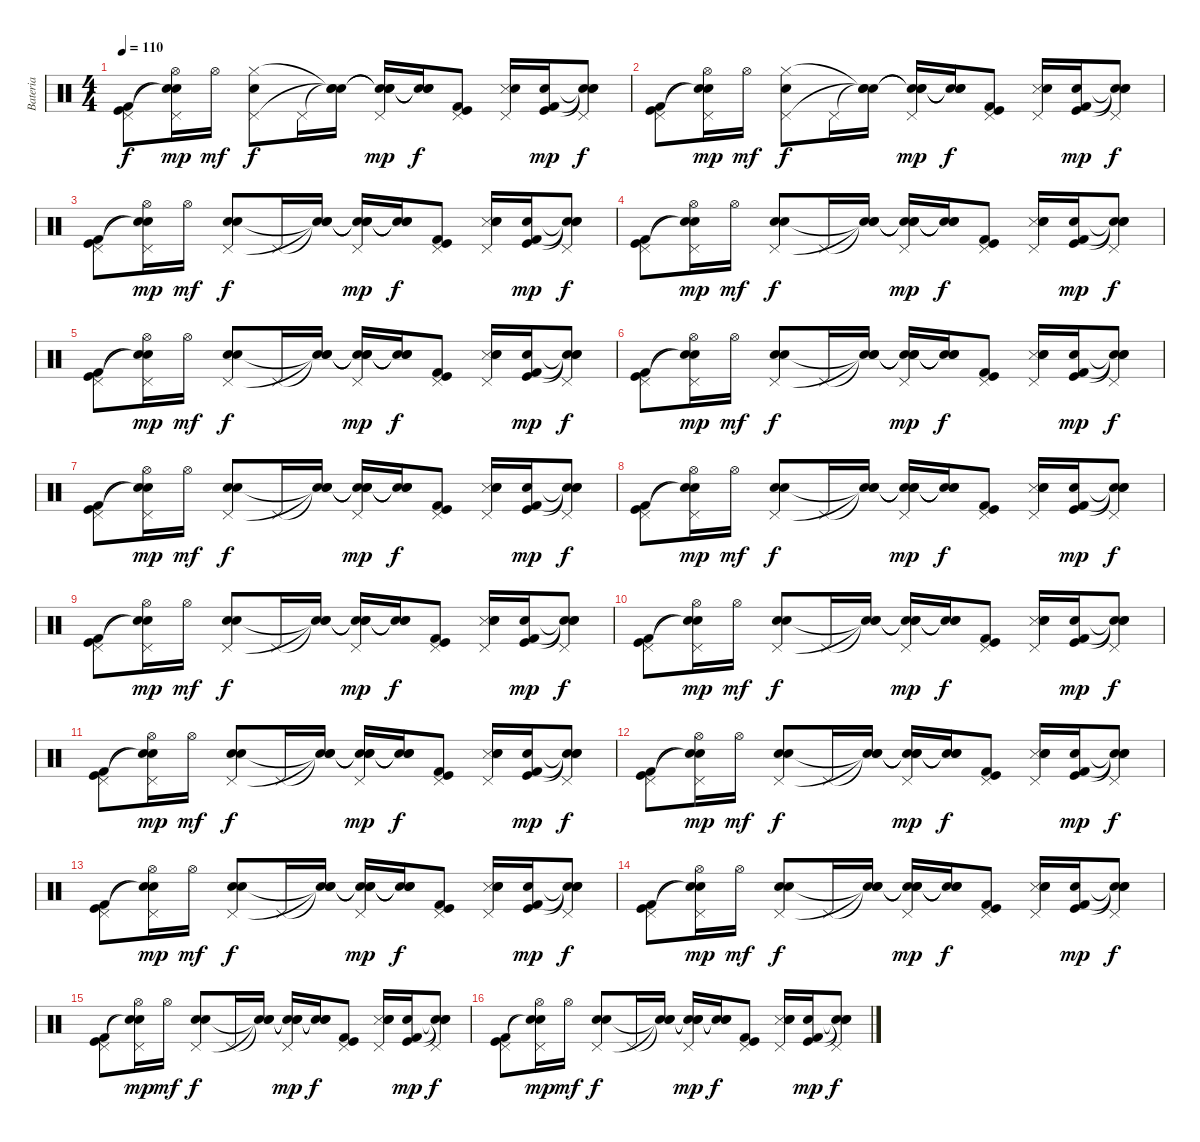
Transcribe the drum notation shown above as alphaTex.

\track ("Bateria" "Bateria") {instrument percussion}
\staff {score}
\articulation defaults
\ts (4 4)
\tempo 110
\clef neutral
\ks c
("Kick (hit)" "Kick (hit) 2" "Pedal Hi-Hat (hit)").8{dy f} ("Snare (hit)"{t} "Snare (hit)"{t} "Hi-Hat (open)" "Pedal Hi-Hat (hit)").16{dy mp} "Hi-Hat (open)".16{dy mf} ("Snare (hit) 2" "Hi-Hat (closed)" "Pedal Hi-Hat (hit)").8{dy f} "Pedal Hi-Hat (hit)".16 ("Snare (hit)"{t} "Snare (hit)"{t} "Snare (hit)"{t}).16 ("Snare (hit)"{t} "Snare (hit)"{t} "Snare (hit)"{t} "Pedal Hi-Hat (hit)").16{dy mp} ("Snare (hit)"{t} "Snare (hit)"{t} "Snare (hit)"{t}).16{dy f} ("Kick (hit) 2" "Kick (hit)" "Pedal Hi-Hat (hit)").8 ("Snare (side stick) 3" "Snare (hit) 2" "Pedal Hi-Hat (hit)").16 ("Kick (hit) 2" "Snare (hit) 2" "Kick (hit)").16{dy mp} ("Snare (hit)"{t} "Snare (hit)"{t} "Snare (hit)"{t} "Pedal Hi-Hat (hit)").8{dy f} |
("Kick (hit)" "Kick (hit) 2" "Pedal Hi-Hat (hit)").8 ("Snare (hit)"{t} "Snare (hit)"{t} "Hi-Hat (open)" "Pedal Hi-Hat (hit)").16{dy mp} "Hi-Hat (open)".16{dy mf} ("Snare (hit) 2" "Hi-Hat (closed)" "Pedal Hi-Hat (hit)").8{dy f} "Pedal Hi-Hat (hit)".16 ("Snare (hit)"{t} "Snare (hit)"{t} "Snare (hit)"{t}).16 ("Snare (hit)"{t} "Snare (hit)"{t} "Snare (hit)"{t} "Pedal Hi-Hat (hit)").16{dy mp} ("Snare (hit)"{t} "Snare (hit)"{t} "Snare (hit)"{t}).16{dy f} ("Kick (hit) 2" "Kick (hit)" "Pedal Hi-Hat (hit)").8 ("Snare (side stick) 3" "Snare (hit) 2" "Pedal Hi-Hat (hit)").16 ("Kick (hit) 2" "Snare (hit) 2" "Kick (hit)").16{dy mp} ("Snare (hit)"{t} "Snare (hit)"{t} "Snare (hit)"{t} "Pedal Hi-Hat (hit)").8{dy f} |
("Kick (hit)" "Kick (hit) 2" "Pedal Hi-Hat (hit)").8 ("Snare (hit)"{t} "Snare (hit)"{t} "Hi-Hat (open)" "Pedal Hi-Hat (hit)").16{dy mp} "Hi-Hat (open)".16{dy mf} ("Snare (hit) 2" "Electric Snare (hit)" "Pedal Hi-Hat (hit)").8{dy f} "Pedal Hi-Hat (hit)".16 ("Snare (hit)"{t} "Snare (hit)"{t} "Snare (hit)"{t}).16 ("Snare (hit)"{t} "Snare (hit)"{t} "Snare (hit)"{t} "Pedal Hi-Hat (hit)").16{dy mp} ("Snare (hit)"{t} "Snare (hit)"{t} "Snare (hit)"{t}).16{dy f} ("Kick (hit) 2" "Kick (hit)" "Pedal Hi-Hat (hit)").8 ("Snare (side stick) 3" "Electric Snare (hit)" "Snare (hit) 2" "Pedal Hi-Hat (hit)").16 ("Kick (hit) 2" "Snare (hit) 2" "Kick (hit)").16{dy mp} ("Snare (hit)"{t} "Snare (hit)"{t} "Snare (hit)"{t} "Pedal Hi-Hat (hit)").8{dy f} |
("Kick (hit)" "Kick (hit) 2" "Pedal Hi-Hat (hit)").8 ("Snare (hit)"{t} "Snare (hit)"{t} "Hi-Hat (open)" "Pedal Hi-Hat (hit)").16{dy mp} "Hi-Hat (open)".16{dy mf} ("Snare (hit) 2" "Electric Snare (hit)" "Pedal Hi-Hat (hit)").8{dy f} "Pedal Hi-Hat (hit)".16 ("Snare (hit)"{t} "Snare (hit)"{t} "Snare (hit)"{t}).16 ("Snare (hit)"{t} "Snare (hit)"{t} "Snare (hit)"{t} "Pedal Hi-Hat (hit)").16{dy mp} ("Snare (hit)"{t} "Snare (hit)"{t} "Snare (hit)"{t}).16{dy f} ("Kick (hit) 2" "Kick (hit)" "Pedal Hi-Hat (hit)").8 ("Snare (side stick) 3" "Snare (hit) 2" "Electric Snare (hit)" "Pedal Hi-Hat (hit)").16 ("Kick (hit) 2" "Snare (hit) 2" "Kick (hit)").16{dy mp} ("Snare (hit)"{t} "Snare (hit)"{t} "Snare (hit)"{t} "Pedal Hi-Hat (hit)").8{dy f} |
("Kick (hit)" "Kick (hit) 2" "Pedal Hi-Hat (hit)").8 ("Snare (hit)"{t} "Snare (hit)"{t} "Hi-Hat (open)" "Pedal Hi-Hat (hit)").16{dy mp} "Hi-Hat (open)".16{dy mf} ("Snare (hit) 2" "Electric Snare (hit)" "Pedal Hi-Hat (hit)").8{dy f} "Pedal Hi-Hat (hit)".16 ("Snare (hit)"{t} "Snare (hit)"{t} "Snare (hit)"{t}).16 ("Snare (hit)"{t} "Snare (hit)"{t} "Snare (hit)"{t} "Pedal Hi-Hat (hit)").16{dy mp} ("Snare (hit)"{t} "Snare (hit)"{t} "Snare (hit)"{t}).16{dy f} ("Kick (hit) 2" "Kick (hit)" "Pedal Hi-Hat (hit)").8 ("Snare (side stick) 3" "Electric Snare (hit)" "Snare (hit) 2" "Pedal Hi-Hat (hit)").16 ("Kick (hit) 2" "Snare (hit) 2" "Kick (hit)").16{dy mp} ("Snare (hit)"{t} "Snare (hit)"{t} "Snare (hit)"{t} "Pedal Hi-Hat (hit)").8{dy f} |
("Kick (hit)" "Kick (hit) 2" "Pedal Hi-Hat (hit)").8 ("Snare (hit)"{t} "Snare (hit)"{t} "Hi-Hat (open)" "Pedal Hi-Hat (hit)").16{dy mp} "Hi-Hat (open)".16{dy mf} ("Snare (hit) 2" "Electric Snare (hit)" "Pedal Hi-Hat (hit)").8{dy f} "Pedal Hi-Hat (hit)".16 ("Snare (hit)"{t} "Snare (hit)"{t} "Snare (hit)"{t}).16 ("Snare (hit)"{t} "Snare (hit)"{t} "Snare (hit)"{t} "Pedal Hi-Hat (hit)").16{dy mp} ("Snare (hit)"{t} "Snare (hit)"{t} "Snare (hit)"{t}).16{dy f} ("Kick (hit) 2" "Kick (hit)" "Pedal Hi-Hat (hit)").8 ("Snare (side stick) 3" "Electric Snare (hit)" "Snare (hit) 2" "Pedal Hi-Hat (hit)").16 ("Kick (hit) 2" "Snare (hit) 2" "Kick (hit)").16{dy mp} ("Snare (hit)"{t} "Snare (hit)"{t} "Snare (hit)"{t} "Pedal Hi-Hat (hit)").8{dy f} |
("Kick (hit)" "Kick (hit) 2" "Pedal Hi-Hat (hit)").8 ("Snare (hit)"{t} "Snare (hit)"{t} "Hi-Hat (open)" "Pedal Hi-Hat (hit)").16{dy mp} "Hi-Hat (open)".16{dy mf} ("Snare (hit) 2" "Electric Snare (hit)" "Pedal Hi-Hat (hit)").8{dy f} "Pedal Hi-Hat (hit)".16 ("Snare (hit)"{t} "Snare (hit)"{t} "Snare (hit)"{t}).16 ("Snare (hit)"{t} "Snare (hit)"{t} "Snare (hit)"{t} "Pedal Hi-Hat (hit)").16{dy mp} ("Snare (hit)"{t} "Snare (hit)"{t} "Snare (hit)"{t}).16{dy f} ("Kick (hit) 2" "Kick (hit)" "Pedal Hi-Hat (hit)").8 ("Snare (side stick) 3" "Electric Snare (hit)" "Snare (hit) 2" "Pedal Hi-Hat (hit)").16 ("Kick (hit) 2" "Snare (hit) 2" "Kick (hit)").16{dy mp} ("Snare (hit)"{t} "Snare (hit)"{t} "Snare (hit)"{t} "Pedal Hi-Hat (hit)").8{dy f} |
("Kick (hit)" "Kick (hit) 2" "Pedal Hi-Hat (hit)").8 ("Snare (hit)"{t} "Snare (hit)"{t} "Hi-Hat (open)" "Pedal Hi-Hat (hit)").16{dy mp} "Hi-Hat (open)".16{dy mf} ("Snare (hit) 2" "Electric Snare (hit)" "Pedal Hi-Hat (hit)").8{dy f} "Pedal Hi-Hat (hit)".16 ("Snare (hit)"{t} "Snare (hit)"{t} "Snare (hit)"{t}).16 ("Snare (hit)"{t} "Snare (hit)"{t} "Snare (hit)"{t} "Pedal Hi-Hat (hit)").16{dy mp} ("Snare (hit)"{t} "Snare (hit)"{t} "Snare (hit)"{t}).16{dy f} ("Kick (hit) 2" "Kick (hit)" "Pedal Hi-Hat (hit)").8 ("Snare (side stick) 3" "Electric Snare (hit)" "Snare (hit) 2" "Pedal Hi-Hat (hit)").16 ("Kick (hit) 2" "Snare (hit) 2" "Kick (hit)").16{dy mp} ("Snare (hit)"{t} "Snare (hit)"{t} "Snare (hit)"{t} "Pedal Hi-Hat (hit)").8{dy f} |
("Kick (hit)" "Kick (hit) 2" "Pedal Hi-Hat (hit)").8 ("Snare (hit)"{t} "Snare (hit)"{t} "Hi-Hat (open)" "Pedal Hi-Hat (hit)").16{dy mp} "Hi-Hat (open)".16{dy mf} ("Snare (hit) 2" "Electric Snare (hit)" "Pedal Hi-Hat (hit)").8{dy f} "Pedal Hi-Hat (hit)".16 ("Snare (hit)"{t} "Snare (hit)"{t} "Snare (hit)"{t}).16 ("Snare (hit)"{t} "Snare (hit)"{t} "Snare (hit)"{t} "Pedal Hi-Hat (hit)").16{dy mp} ("Snare (hit)"{t} "Snare (hit)"{t} "Snare (hit)"{t}).16{dy f} ("Kick (hit) 2" "Kick (hit)" "Pedal Hi-Hat (hit)").8 ("Snare (side stick) 3" "Electric Snare (hit)" "Snare (hit) 2" "Pedal Hi-Hat (hit)").16 ("Kick (hit) 2" "Snare (hit) 2" "Kick (hit)").16{dy mp} ("Snare (hit)"{t} "Snare (hit)"{t} "Snare (hit)"{t} "Pedal Hi-Hat (hit)").8{dy f} |
("Kick (hit)" "Kick (hit) 2" "Pedal Hi-Hat (hit)").8 ("Snare (hit)"{t} "Snare (hit)"{t} "Hi-Hat (open)" "Pedal Hi-Hat (hit)").16{dy mp} "Hi-Hat (open)".16{dy mf} ("Snare (hit) 2" "Electric Snare (hit)" "Pedal Hi-Hat (hit)").8{dy f} "Pedal Hi-Hat (hit)".16 ("Snare (hit)"{t} "Snare (hit)"{t} "Snare (hit)"{t}).16 ("Snare (hit)"{t} "Snare (hit)"{t} "Snare (hit)"{t} "Pedal Hi-Hat (hit)").16{dy mp} ("Snare (hit)"{t} "Snare (hit)"{t} "Snare (hit)"{t}).16{dy f} ("Kick (hit) 2" "Kick (hit)" "Pedal Hi-Hat (hit)").8 ("Snare (side stick) 3" "Electric Snare (hit)" "Snare (hit) 2" "Pedal Hi-Hat (hit)").16 ("Kick (hit) 2" "Snare (hit) 2" "Kick (hit)").16{dy mp} ("Snare (hit)"{t} "Snare (hit)"{t} "Snare (hit)"{t} "Pedal Hi-Hat (hit)").8{dy f} |
("Kick (hit)" "Kick (hit) 2" "Pedal Hi-Hat (hit)").8 ("Snare (hit)"{t} "Snare (hit)"{t} "Hi-Hat (open)" "Pedal Hi-Hat (hit)").16{dy mp} "Hi-Hat (open)".16{dy mf} ("Snare (hit) 2" "Electric Snare (hit)" "Pedal Hi-Hat (hit)").8{dy f} "Pedal Hi-Hat (hit)".16 ("Snare (hit)"{t} "Snare (hit)"{t} "Snare (hit)"{t}).16 ("Snare (hit)"{t} "Snare (hit)"{t} "Snare (hit)"{t} "Pedal Hi-Hat (hit)").16{dy mp} ("Snare (hit)"{t} "Snare (hit)"{t} "Snare (hit)"{t}).16{dy f} ("Kick (hit) 2" "Kick (hit)" "Pedal Hi-Hat (hit)").8 ("Snare (side stick) 3" "Electric Snare (hit)" "Snare (hit) 2" "Pedal Hi-Hat (hit)").16 ("Kick (hit) 2" "Snare (hit) 2" "Kick (hit)").16{dy mp} ("Snare (hit)"{t} "Snare (hit)"{t} "Snare (hit)"{t} "Pedal Hi-Hat (hit)").8{dy f} |
("Kick (hit)" "Kick (hit) 2" "Pedal Hi-Hat (hit)").8 ("Snare (hit)"{t} "Snare (hit)"{t} "Hi-Hat (open)" "Pedal Hi-Hat (hit)").16{dy mp} "Hi-Hat (open)".16{dy mf} ("Snare (hit) 2" "Electric Snare (hit)" "Pedal Hi-Hat (hit)").8{dy f} "Pedal Hi-Hat (hit)".16 ("Snare (hit)"{t} "Snare (hit)"{t} "Snare (hit)"{t}).16 ("Snare (hit)"{t} "Snare (hit)"{t} "Snare (hit)"{t} "Pedal Hi-Hat (hit)").16{dy mp} ("Snare (hit)"{t} "Snare (hit)"{t} "Snare (hit)"{t}).16{dy f} ("Kick (hit) 2" "Kick (hit)" "Pedal Hi-Hat (hit)").8 ("Snare (side stick) 3" "Electric Snare (hit)" "Snare (hit) 2" "Pedal Hi-Hat (hit)").16 ("Kick (hit) 2" "Snare (hit) 2" "Kick (hit)").16{dy mp} ("Snare (hit)"{t} "Snare (hit)"{t} "Snare (hit)"{t} "Pedal Hi-Hat (hit)").8{dy f} |
("Kick (hit)" "Kick (hit) 2" "Pedal Hi-Hat (hit)").8 ("Snare (hit)"{t} "Snare (hit)"{t} "Hi-Hat (open)" "Pedal Hi-Hat (hit)").16{dy mp} "Hi-Hat (open)".16{dy mf} ("Snare (hit) 2" "Electric Snare (hit)" "Pedal Hi-Hat (hit)").8{dy f} "Pedal Hi-Hat (hit)".16 ("Snare (hit)"{t} "Snare (hit)"{t} "Snare (hit)"{t}).16 ("Snare (hit)"{t} "Snare (hit)"{t} "Snare (hit)"{t} "Pedal Hi-Hat (hit)").16{dy mp} ("Snare (hit)"{t} "Snare (hit)"{t} "Snare (hit)"{t}).16{dy f} ("Kick (hit) 2" "Kick (hit)" "Pedal Hi-Hat (hit)").8 ("Snare (side stick) 3" "Electric Snare (hit)" "Snare (hit) 2" "Pedal Hi-Hat (hit)").16 ("Kick (hit) 2" "Snare (hit) 2" "Kick (hit)").16{dy mp} ("Snare (hit)"{t} "Snare (hit)"{t} "Snare (hit)"{t} "Pedal Hi-Hat (hit)").8{dy f} |
("Kick (hit)" "Kick (hit) 2" "Pedal Hi-Hat (hit)").8 ("Snare (hit)"{t} "Snare (hit)"{t} "Hi-Hat (open)" "Pedal Hi-Hat (hit)").16{dy mp} "Hi-Hat (open)".16{dy mf} ("Snare (hit) 2" "Electric Snare (hit)" "Pedal Hi-Hat (hit)").8{dy f} "Pedal Hi-Hat (hit)".16 ("Snare (hit)"{t} "Snare (hit)"{t} "Snare (hit)"{t}).16 ("Snare (hit)"{t} "Snare (hit)"{t} "Snare (hit)"{t} "Pedal Hi-Hat (hit)").16{dy mp} ("Snare (hit)"{t} "Snare (hit)"{t} "Snare (hit)"{t}).16{dy f} ("Kick (hit) 2" "Kick (hit)" "Pedal Hi-Hat (hit)").8 ("Snare (side stick) 3" "Electric Snare (hit)" "Snare (hit) 2" "Pedal Hi-Hat (hit)").16 ("Kick (hit) 2" "Snare (hit) 2" "Kick (hit)").16{dy mp} ("Snare (hit)"{t} "Snare (hit)"{t} "Snare (hit)"{t} "Pedal Hi-Hat (hit)").8{dy f} |
("Kick (hit)" "Kick (hit) 2" "Pedal Hi-Hat (hit)").8 ("Snare (hit)"{t} "Snare (hit)"{t} "Hi-Hat (open)" "Pedal Hi-Hat (hit)").16{dy mp} "Hi-Hat (open)".16{dy mf} ("Snare (hit) 2" "Electric Snare (hit)" "Pedal Hi-Hat (hit)").8{dy f} "Pedal Hi-Hat (hit)".16 ("Snare (hit)"{t} "Snare (hit)"{t} "Snare (hit)"{t}).16 ("Snare (hit)"{t} "Snare (hit)"{t} "Snare (hit)"{t} "Pedal Hi-Hat (hit)").16{dy mp} ("Snare (hit)"{t} "Snare (hit)"{t} "Snare (hit)"{t}).16{dy f} ("Kick (hit) 2" "Kick (hit)" "Pedal Hi-Hat (hit)").8 ("Snare (side stick) 3" "Electric Snare (hit)" "Snare (hit) 2" "Pedal Hi-Hat (hit)").16 ("Kick (hit) 2" "Snare (hit) 2" "Kick (hit)").16{dy mp} ("Snare (hit)"{t} "Snare (hit)"{t} "Snare (hit)"{t} "Pedal Hi-Hat (hit)").8{dy f} |
("Kick (hit)" "Kick (hit) 2" "Pedal Hi-Hat (hit)").8 ("Snare (hit)"{t} "Snare (hit)"{t} "Hi-Hat (open)" "Pedal Hi-Hat (hit)").16{dy mp} "Hi-Hat (open)".16{dy mf} ("Snare (hit) 2" "Electric Snare (hit)" "Pedal Hi-Hat (hit)").8{dy f} "Pedal Hi-Hat (hit)".16 ("Snare (hit)"{t} "Snare (hit)"{t} "Snare (hit)"{t}).16 ("Snare (hit)"{t} "Snare (hit)"{t} "Snare (hit)"{t} "Pedal Hi-Hat (hit)").16{dy mp} ("Snare (hit)"{t} "Snare (hit)"{t} "Snare (hit)"{t}).16{dy f} ("Kick (hit) 2" "Kick (hit)" "Pedal Hi-Hat (hit)").8 ("Snare (side stick) 3" "Electric Snare (hit)" "Snare (hit) 2" "Pedal Hi-Hat (hit)").16 ("Kick (hit) 2" "Snare (hit) 2" "Kick (hit)").16{dy mp} ("Snare (hit)"{t} "Snare (hit)"{t} "Snare (hit)"{t} "Pedal Hi-Hat (hit)").8{dy f}
